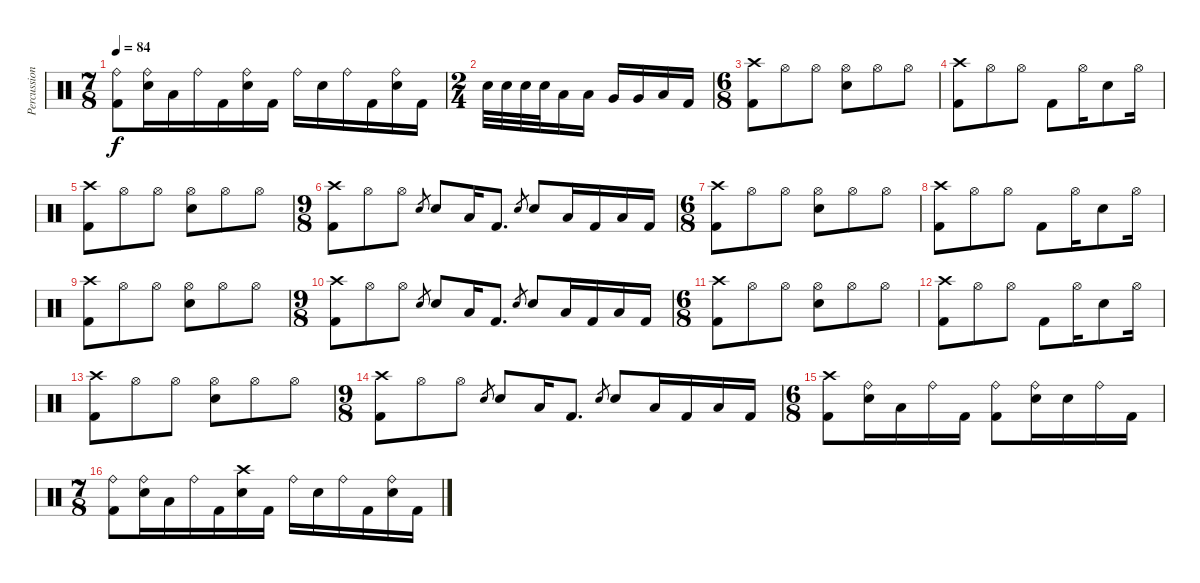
\track ("Percussion" "Percussion") {instrument percussion}
\staff {score}
\articulation defaults
\ts (7 8)
\tempo 84
\clef neutral
\ks c
("Ride (bell)" "Kick (hit) 2").8{dy f} ("Ride (bell)" "Electric Snare (hit)").16 "Low Tom (hit)".16 "Ride (bell)".16 "Kick (hit) 2".16 ("Ride (bell)" "Electric Snare (hit)").16 "Kick (hit) 2".16 "Ride (bell)".16 "Electric Snare (hit)".16 "Ride (bell)".16 "Kick (hit) 2".16 ("Ride (bell)" "Electric Snare (hit)").16 "Kick (hit) 2".16 |
\ts (2 4)
"Electric Snare (hit)".32 "Electric Snare (hit)".32 "Electric Snare (hit)".32 "Electric Snare (hit)".32 "Low Tom (hit)".16 "Low Tom (hit)".16 "Very Low Tom (hit)".16 "Very Low Tom (hit)".16 "Low Floor Tom (hit)".16 "Kick (hit) 2".16 |
\ts (6 8)
("Crash high (hit)" "Kick (hit) 2").8 "Hi-Hat (open)".8 "Hi-Hat (open)".8 ("Hi-Hat (open)" "Electric Snare (hit)").8 "Hi-Hat (open)".8 "Hi-Hat (open)".8 |
("Crash high (hit)" "Kick (hit) 2").8 "Hi-Hat (open)".8 "Hi-Hat (open)".8 "Kick (hit) 2".8 "Hi-Hat (open)".16 "Electric Snare (hit)".8 "Hi-Hat (open)".16 |
("Crash high (hit)" "Kick (hit) 2").8 "Hi-Hat (open)".8 "Hi-Hat (open)".8 ("Hi-Hat (open)" "Electric Snare (hit)").8 "Hi-Hat (open)".8 "Hi-Hat (open)".8 |
\ts (9 8)
("Crash high (hit)" "Kick (hit) 2").8 "Hi-Hat (open)".8 "Hi-Hat (open)".8 "Electric Snare (hit)".8{gr} "Electric Snare (hit)".8 "Low Tom (hit)".16 "Kick (hit) 2".8{d} "Electric Snare (hit)".8{gr} "Electric Snare (hit)".8 "Low Tom (hit)".16 "Kick (hit) 2".16 "Low Floor Tom (hit)".16 "Kick (hit) 2".16 |
\ts (6 8)
("Crash high (hit)" "Kick (hit) 2").8 "Hi-Hat (open)".8 "Hi-Hat (open)".8 ("Hi-Hat (open)" "Electric Snare (hit)").8 "Hi-Hat (open)".8 "Hi-Hat (open)".8 |
("Crash high (hit)" "Kick (hit) 2").8 "Hi-Hat (open)".8 "Hi-Hat (open)".8 "Kick (hit) 2".8 "Hi-Hat (open)".16 "Electric Snare (hit)".8 "Hi-Hat (open)".16 |
("Crash high (hit)" "Kick (hit) 2").8 "Hi-Hat (open)".8 "Hi-Hat (open)".8 ("Hi-Hat (open)" "Electric Snare (hit)").8 "Hi-Hat (open)".8 "Hi-Hat (open)".8 |
\ts (9 8)
("Crash high (hit)" "Kick (hit) 2").8 "Hi-Hat (open)".8 "Hi-Hat (open)".8 "Electric Snare (hit)".8{gr} "Electric Snare (hit)".8 "Low Tom (hit)".16 "Kick (hit) 2".8{d} "Electric Snare (hit)".8{gr} "Electric Snare (hit)".8 "Low Tom (hit)".16 "Kick (hit) 2".16 "Low Floor Tom (hit)".16 "Kick (hit) 2".16 |
\ts (6 8)
("Crash high (hit)" "Kick (hit) 2").8 "Hi-Hat (open)".8 "Hi-Hat (open)".8 ("Hi-Hat (open)" "Electric Snare (hit)").8 "Hi-Hat (open)".8 "Hi-Hat (open)".8 |
("Crash high (hit)" "Kick (hit) 2").8 "Hi-Hat (open)".8 "Hi-Hat (open)".8 "Kick (hit) 2".8 "Hi-Hat (open)".16 "Electric Snare (hit)".8 "Hi-Hat (open)".16 |
("Crash high (hit)" "Kick (hit) 2").8 "Hi-Hat (open)".8 "Hi-Hat (open)".8 ("Hi-Hat (open)" "Electric Snare (hit)").8 "Hi-Hat (open)".8 "Hi-Hat (open)".8 |
\ts (9 8)
("Crash high (hit)" "Kick (hit) 2").8 "Hi-Hat (open)".8 "Hi-Hat (open)".8 "Electric Snare (hit)".8{gr} "Electric Snare (hit)".8 "Low Tom (hit)".16 "Kick (hit) 2".8{d} "Electric Snare (hit)".8{gr} "Electric Snare (hit)".8 "Low Tom (hit)".16 "Kick (hit) 2".16 "Low Floor Tom (hit)".16 "Kick (hit) 2".16 |
\ts (6 8)
("Crash high (hit)" "Kick (hit) 2").8 ("Ride (bell)" "Electric Snare (hit)").16 "Low Tom (hit)".16 "Ride (bell)".16 "Kick (hit) 2".16 ("Ride (bell)" "Kick (hit) 2").8 ("Ride (bell)" "Electric Snare (hit)").16 "Electric Snare (hit)".16 "Ride (bell)".16 "Kick (hit) 2".16 |
\ts (7 8)
("Ride (bell)" "Kick (hit) 2").8 ("Ride (bell)" "Electric Snare (hit)").16 "Low Tom (hit)".16 "Ride (bell)".16 "Kick (hit) 2".16 ("Crash high (hit)" "Electric Snare (hit)").16 "Kick (hit) 2".16 "Ride (bell)".16 "Electric Snare (hit)".16 "Ride (bell)".16 "Kick (hit) 2".16 ("Ride (bell)" "Electric Snare (hit)").16 "Kick (hit) 2".16
